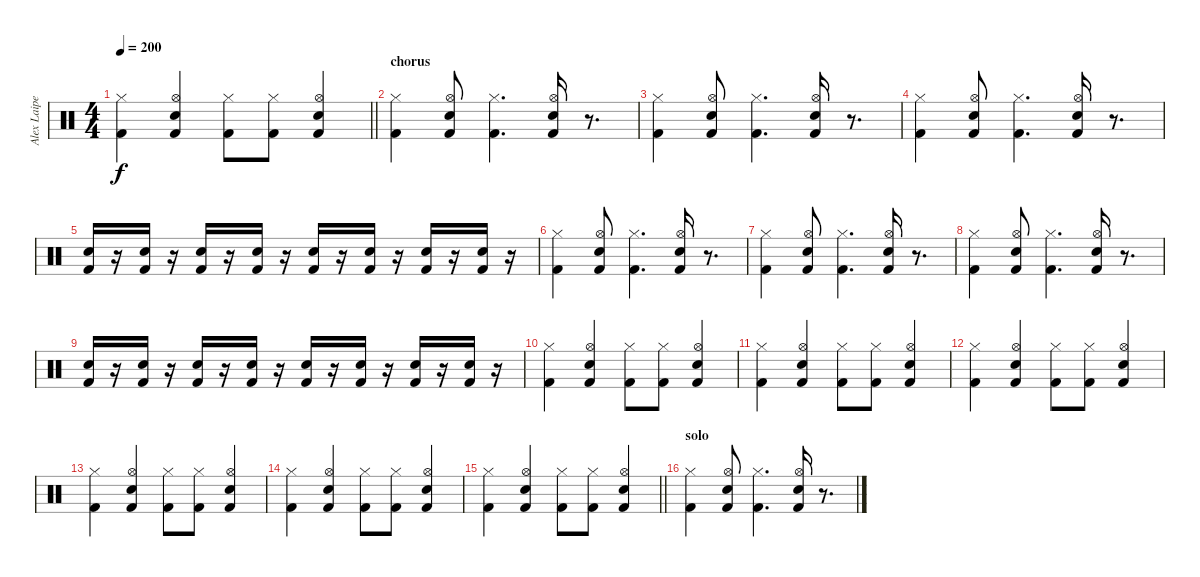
\track ("Alex Laipeneiks - Drums" "Alex Laipe") {instrument percussion}
\staff {score}
\articulation defaults
\ts (4 4)
\tempo 200
\clef neutral
\barLineRight lightlight
\ks c
("Hi-Hat (closed)" "Kick (hit) 2").4{dy f} ("Hi-Hat (open)" "Snare (hit) 2" "Kick (hit) 2").4 ("Hi-Hat (closed)" "Kick (hit) 2").8 ("Hi-Hat (closed)" "Kick (hit) 2").8 ("Hi-Hat (open)" "Snare (hit) 2" "Kick (hit) 2").4 |
\section ("" "chorus")
("Hi-Hat (closed)" "Kick (hit) 2").4 ("Hi-Hat (open)" "Snare (hit) 2" "Kick (hit) 2").8 ("Hi-Hat (closed)" "Kick (hit) 2").4{d} ("Hi-Hat (open)" "Snare (hit) 2" "Kick (hit) 2").16 r.8{d} |
("Hi-Hat (closed)" "Kick (hit) 2").4 ("Hi-Hat (open)" "Snare (hit) 2" "Kick (hit) 2").8 ("Hi-Hat (closed)" "Kick (hit) 2").4{d} ("Hi-Hat (open)" "Snare (hit) 2" "Kick (hit) 2").16 r.8{d} |
("Hi-Hat (closed)" "Kick (hit) 2").4 ("Hi-Hat (open)" "Snare (hit) 2" "Kick (hit) 2").8 ("Hi-Hat (closed)" "Kick (hit) 2").4{d} ("Hi-Hat (open)" "Snare (hit) 2" "Kick (hit) 2").16 r.8{d} |
("Snare (hit) 2" "Kick (hit) 2").16 r.16 ("Snare (hit) 2" "Kick (hit) 2").16 r.16 ("Snare (hit) 2" "Kick (hit) 2").16 r.16 ("Snare (hit) 2" "Kick (hit) 2").16 r.16 ("Snare (hit) 2" "Kick (hit) 2").16 r.16 ("Snare (hit) 2" "Kick (hit) 2").16 r.16 ("Snare (hit) 2" "Kick (hit) 2").16 r.16 ("Snare (hit) 2" "Kick (hit) 2").16 r.16 |
("Hi-Hat (closed)" "Kick (hit) 2").4 ("Hi-Hat (open)" "Snare (hit) 2" "Kick (hit) 2").8 ("Hi-Hat (closed)" "Kick (hit) 2").4{d} ("Hi-Hat (open)" "Snare (hit) 2" "Kick (hit) 2").16 r.8{d} |
("Hi-Hat (closed)" "Kick (hit) 2").4 ("Hi-Hat (open)" "Snare (hit) 2" "Kick (hit) 2").8 ("Hi-Hat (closed)" "Kick (hit) 2").4{d} ("Hi-Hat (open)" "Snare (hit) 2" "Kick (hit) 2").16 r.8{d} |
("Hi-Hat (closed)" "Kick (hit) 2").4 ("Hi-Hat (open)" "Snare (hit) 2" "Kick (hit) 2").8 ("Hi-Hat (closed)" "Kick (hit) 2").4{d} ("Hi-Hat (open)" "Snare (hit) 2" "Kick (hit) 2").16 r.8{d} |
("Snare (hit) 2" "Kick (hit) 2").16 r.16 ("Snare (hit) 2" "Kick (hit) 2").16 r.16 ("Snare (hit) 2" "Kick (hit) 2").16 r.16 ("Snare (hit) 2" "Kick (hit) 2").16 r.16 ("Snare (hit) 2" "Kick (hit) 2").16 r.16 ("Snare (hit) 2" "Kick (hit) 2").16 r.16 ("Snare (hit) 2" "Kick (hit) 2").16 r.16 ("Snare (hit) 2" "Kick (hit) 2").16 r.16 |
("Hi-Hat (closed)" "Kick (hit) 2").4 ("Hi-Hat (open)" "Snare (hit) 2" "Kick (hit) 2").4 ("Hi-Hat (closed)" "Kick (hit) 2").8 ("Hi-Hat (closed)" "Kick (hit) 2").8 ("Hi-Hat (open)" "Snare (hit) 2" "Kick (hit) 2").4 |
("Hi-Hat (closed)" "Kick (hit) 2").4 ("Hi-Hat (open)" "Snare (hit) 2" "Kick (hit) 2").4 ("Hi-Hat (closed)" "Kick (hit) 2").8 ("Hi-Hat (closed)" "Kick (hit) 2").8 ("Hi-Hat (open)" "Snare (hit) 2" "Kick (hit) 2").4 |
("Hi-Hat (closed)" "Kick (hit) 2").4 ("Hi-Hat (open)" "Snare (hit) 2" "Kick (hit) 2").4 ("Hi-Hat (closed)" "Kick (hit) 2").8 ("Hi-Hat (closed)" "Kick (hit) 2").8 ("Hi-Hat (open)" "Snare (hit) 2" "Kick (hit) 2").4 |
("Hi-Hat (closed)" "Kick (hit) 2").4 ("Hi-Hat (open)" "Snare (hit) 2" "Kick (hit) 2").4 ("Hi-Hat (closed)" "Kick (hit) 2").8 ("Hi-Hat (closed)" "Kick (hit) 2").8 ("Hi-Hat (open)" "Snare (hit) 2" "Kick (hit) 2").4 |
("Hi-Hat (closed)" "Kick (hit) 2").4 ("Hi-Hat (open)" "Snare (hit) 2" "Kick (hit) 2").4 ("Hi-Hat (closed)" "Kick (hit) 2").8 ("Hi-Hat (closed)" "Kick (hit) 2").8 ("Hi-Hat (open)" "Snare (hit) 2" "Kick (hit) 2").4 |
\barLineRight lightlight
("Hi-Hat (closed)" "Kick (hit) 2").4 ("Hi-Hat (open)" "Snare (hit) 2" "Kick (hit) 2").4 ("Hi-Hat (closed)" "Kick (hit) 2").8 ("Hi-Hat (closed)" "Kick (hit) 2").8 ("Hi-Hat (open)" "Snare (hit) 2" "Kick (hit) 2").4 |
\section ("" "solo")
("Hi-Hat (closed)" "Kick (hit) 2").4 ("Hi-Hat (open)" "Snare (hit) 2" "Kick (hit) 2").8 ("Hi-Hat (closed)" "Kick (hit) 2").4{d} ("Hi-Hat (open)" "Snare (hit) 2" "Kick (hit) 2").16 r.8{d}
